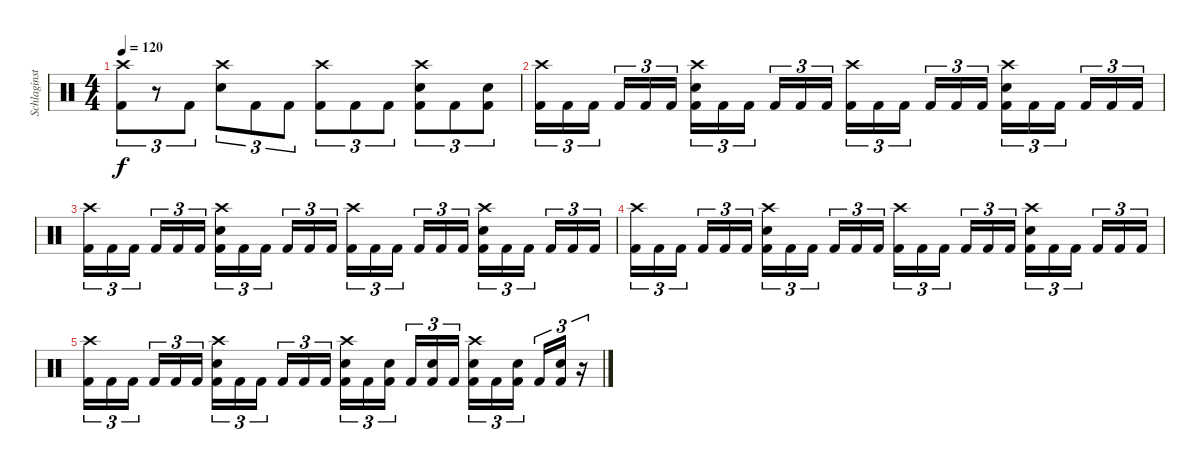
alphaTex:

\track ("Schlaginstrumente - Auswahl" "Schlaginst") {instrument percussion}
\staff {score}
\articulation defaults
\ts (4 4)
\tempo 120
\clef neutral
\ks c
("Crash high (hit)" "Kick (hit) 2").8{tu (3 2) dy f} r.8{tu (3 2)} "Kick (hit) 2".8{tu (3 2)} ("Crash high (hit)" "Electric Snare (hit)").8{tu (3 2)} "Kick (hit) 2".8{tu (3 2)} "Kick (hit) 2".8{tu (3 2)} ("Crash high (hit)" "Kick (hit) 2").8{tu (3 2)} "Kick (hit) 2".8{tu (3 2)} "Kick (hit) 2".8{tu (3 2)} ("Crash high (hit)" "Electric Snare (hit)" "Kick (hit) 2").8{tu (3 2)} "Kick (hit) 2".8{tu (3 2)} ("Electric Snare (hit)" "Kick (hit) 2").8{tu (3 2)} |
("Crash high (hit)" "Kick (hit) 2").16{tu (3 2)} "Kick (hit) 2".16{tu (3 2)} "Kick (hit) 2".16{tu (3 2) beam splitsecondary} "Kick (hit) 2".16{tu (3 2)} "Kick (hit) 2".16{tu (3 2)} "Kick (hit) 2".16{tu (3 2)} ("Crash high (hit)" "Electric Snare (hit)" "Kick (hit) 2").16{tu (3 2)} "Kick (hit) 2".16{tu (3 2)} "Kick (hit) 2".16{tu (3 2) beam splitsecondary} "Kick (hit) 2".16{tu (3 2)} "Kick (hit) 2".16{tu (3 2)} "Kick (hit) 2".16{tu (3 2)} ("Crash high (hit)" "Kick (hit) 2").16{tu (3 2)} "Kick (hit) 2".16{tu (3 2)} "Kick (hit) 2".16{tu (3 2) beam splitsecondary} "Kick (hit) 2".16{tu (3 2)} "Kick (hit) 2".16{tu (3 2)} "Kick (hit) 2".16{tu (3 2)} ("Crash high (hit)" "Electric Snare (hit)" "Kick (hit) 2").16{tu (3 2)} "Kick (hit) 2".16{tu (3 2)} "Kick (hit) 2".16{tu (3 2) beam splitsecondary} "Kick (hit) 2".16{tu (3 2)} "Kick (hit) 2".16{tu (3 2)} "Kick (hit) 2".16{tu (3 2)} |
("Crash high (hit)" "Kick (hit) 2").16{tu (3 2)} "Kick (hit) 2".16{tu (3 2)} "Kick (hit) 2".16{tu (3 2) beam splitsecondary} "Kick (hit) 2".16{tu (3 2)} "Kick (hit) 2".16{tu (3 2)} "Kick (hit) 2".16{tu (3 2)} ("Crash high (hit)" "Electric Snare (hit)" "Kick (hit) 2").16{tu (3 2)} "Kick (hit) 2".16{tu (3 2)} "Kick (hit) 2".16{tu (3 2) beam splitsecondary} "Kick (hit) 2".16{tu (3 2)} "Kick (hit) 2".16{tu (3 2)} "Kick (hit) 2".16{tu (3 2)} ("Crash high (hit)" "Kick (hit) 2").16{tu (3 2)} "Kick (hit) 2".16{tu (3 2)} "Kick (hit) 2".16{tu (3 2) beam splitsecondary} "Kick (hit) 2".16{tu (3 2)} "Kick (hit) 2".16{tu (3 2)} "Kick (hit) 2".16{tu (3 2)} ("Crash high (hit)" "Electric Snare (hit)" "Kick (hit) 2").16{tu (3 2)} "Kick (hit) 2".16{tu (3 2)} "Kick (hit) 2".16{tu (3 2) beam splitsecondary} "Kick (hit) 2".16{tu (3 2)} "Kick (hit) 2".16{tu (3 2)} "Kick (hit) 2".16{tu (3 2)} |
("Crash high (hit)" "Kick (hit) 2").16{tu (3 2)} "Kick (hit) 2".16{tu (3 2)} "Kick (hit) 2".16{tu (3 2) beam splitsecondary} "Kick (hit) 2".16{tu (3 2)} "Kick (hit) 2".16{tu (3 2)} "Kick (hit) 2".16{tu (3 2)} ("Crash high (hit)" "Electric Snare (hit)" "Kick (hit) 2").16{tu (3 2)} "Kick (hit) 2".16{tu (3 2)} "Kick (hit) 2".16{tu (3 2) beam splitsecondary} "Kick (hit) 2".16{tu (3 2)} "Kick (hit) 2".16{tu (3 2)} "Kick (hit) 2".16{tu (3 2)} ("Crash high (hit)" "Kick (hit) 2").16{tu (3 2)} "Kick (hit) 2".16{tu (3 2)} "Kick (hit) 2".16{tu (3 2) beam splitsecondary} "Kick (hit) 2".16{tu (3 2)} "Kick (hit) 2".16{tu (3 2)} "Kick (hit) 2".16{tu (3 2)} ("Crash high (hit)" "Electric Snare (hit)" "Kick (hit) 2").16{tu (3 2)} "Kick (hit) 2".16{tu (3 2)} "Kick (hit) 2".16{tu (3 2) beam splitsecondary} "Kick (hit) 2".16{tu (3 2)} "Kick (hit) 2".16{tu (3 2)} "Kick (hit) 2".16{tu (3 2)} |
("Crash high (hit)" "Kick (hit) 2").16{tu (3 2)} "Kick (hit) 2".16{tu (3 2)} "Kick (hit) 2".16{tu (3 2) beam splitsecondary} "Kick (hit) 2".16{tu (3 2)} "Kick (hit) 2".16{tu (3 2)} "Kick (hit) 2".16{tu (3 2)} ("Crash high (hit)" "Electric Snare (hit)" "Kick (hit) 2").16{tu (3 2)} "Kick (hit) 2".16{tu (3 2)} "Kick (hit) 2".16{tu (3 2) beam splitsecondary} "Kick (hit) 2".16{tu (3 2)} "Kick (hit) 2".16{tu (3 2)} "Kick (hit) 2".16{tu (3 2)} ("Crash high (hit)" "Snare (hit) 2" "Kick (hit) 2").16{tu (3 2)} "Kick (hit) 2".16{tu (3 2)} ("Snare (hit) 2" "Kick (hit) 2").16{tu (3 2) beam splitsecondary} "Kick (hit) 2".16{tu (3 2)} ("Snare (hit) 2" "Kick (hit) 2").16{tu (3 2)} "Kick (hit) 2".16{tu (3 2)} ("Crash high (hit)" "Electric Snare (hit)" "Kick (hit) 2").16{tu (3 2)} "Kick (hit) 2".16{tu (3 2)} ("Electric Snare (hit)" "Kick (hit) 2").16{tu (3 2) beam splitsecondary} "Kick (hit) 2".16{tu (3 2)} ("Electric Snare (hit)" "Kick (hit) 2").16{tu (3 2)} r.16{tu (3 2)}
